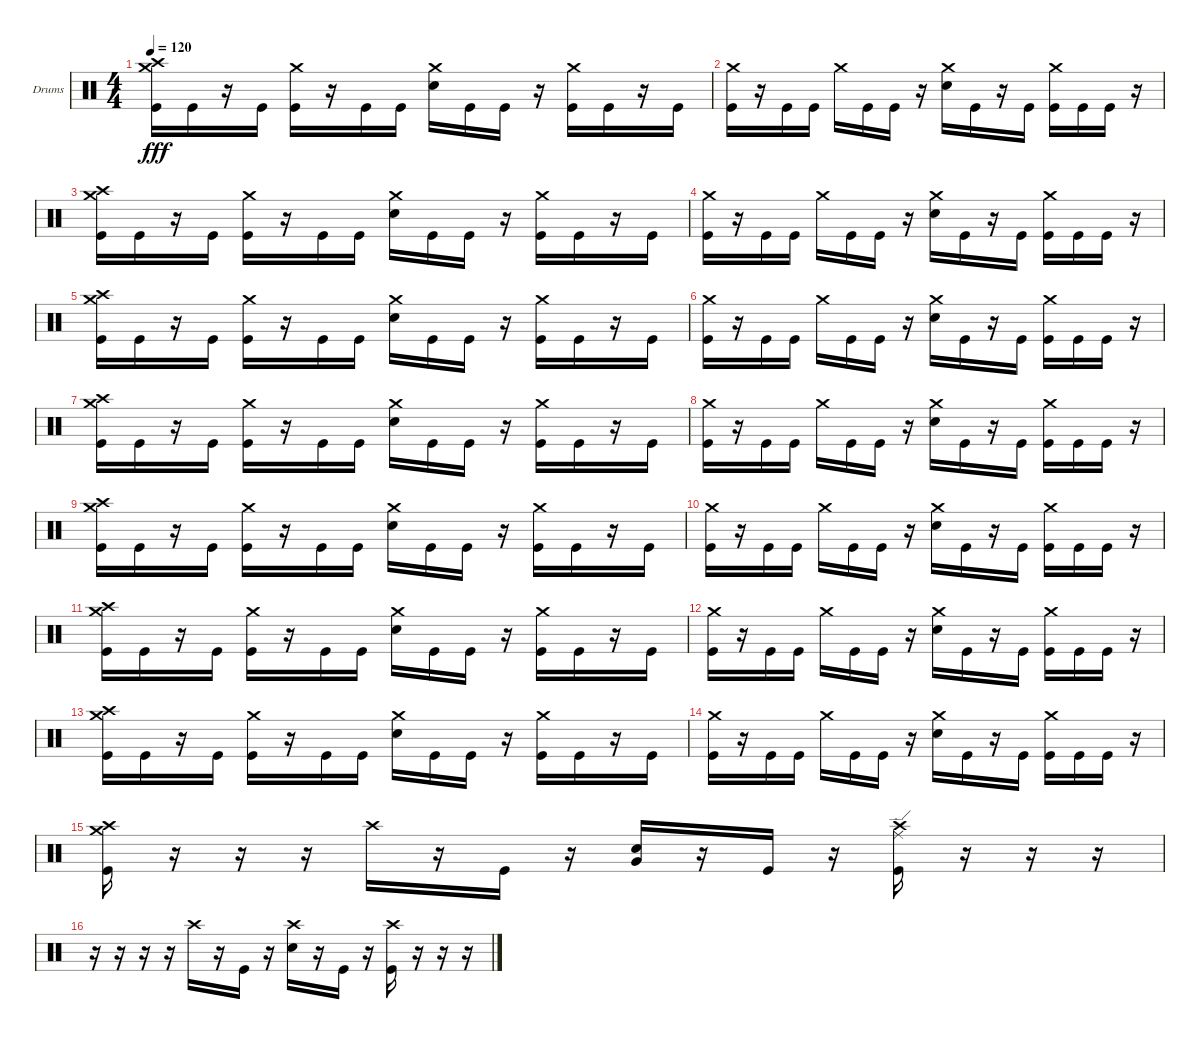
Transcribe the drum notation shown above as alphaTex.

\bracketExtendMode groupsimilarinstruments
\firstSystemTrackNameOrientation horizontal
\otherSystemsTrackNameOrientation horizontal
\track ("Drumkit" "Drums") {instrument percussion}
\staff {score}
\articulation defaults
\ts (4 4)
\tempo 120
\clef neutral
\ks c
("Kick (hit)" "Crash medium (hit)" "Crash high (hit)").16{dy fff} "Kick (hit)".16 r.16 "Kick (hit)".16 ("Kick (hit)" "Crash medium (hit)").16 r.16 "Kick (hit)".16 "Kick (hit)".16 ("Crash medium (hit)" "Snare (hit) 2").16 "Kick (hit)".16 "Kick (hit)".16 r.16 ("Kick (hit)" "Crash medium (hit)").16 "Kick (hit)".16 r.16 "Kick (hit)".16 |
("Kick (hit)" "Crash medium (hit)").16 r.16 "Kick (hit)".16 "Kick (hit)".16 "Crash medium (hit)".16 "Kick (hit)".16 "Kick (hit)".16 r.16 ("Crash medium (hit)" "Snare (hit) 2").16 "Kick (hit)".16 r.16 "Kick (hit)".16 ("Kick (hit)" "Crash medium (hit)").16 "Kick (hit)".16 "Kick (hit)".16 r.16 |
("Kick (hit)" "Crash medium (hit)" "Crash high (hit)").16 "Kick (hit)".16 r.16 "Kick (hit)".16 ("Kick (hit)" "Crash medium (hit)").16 r.16 "Kick (hit)".16 "Kick (hit)".16 ("Crash medium (hit)" "Snare (hit) 2").16 "Kick (hit)".16 "Kick (hit)".16 r.16 ("Kick (hit)" "Crash medium (hit)").16 "Kick (hit)".16 r.16 "Kick (hit)".16 |
("Kick (hit)" "Crash medium (hit)").16 r.16 "Kick (hit)".16 "Kick (hit)".16 "Crash medium (hit)".16 "Kick (hit)".16 "Kick (hit)".16 r.16 ("Crash medium (hit)" "Snare (hit) 2").16 "Kick (hit)".16 r.16 "Kick (hit)".16 ("Kick (hit)" "Crash medium (hit)").16 "Kick (hit)".16 "Kick (hit)".16 r.16 |
("Kick (hit)" "Crash medium (hit)" "Crash high (hit)").16 "Kick (hit)".16 r.16 "Kick (hit)".16 ("Kick (hit)" "Crash medium (hit)").16 r.16 "Kick (hit)".16 "Kick (hit)".16 ("Crash medium (hit)" "Snare (hit) 2").16 "Kick (hit)".16 "Kick (hit)".16 r.16 ("Kick (hit)" "Crash medium (hit)").16 "Kick (hit)".16 r.16 "Kick (hit)".16 |
("Kick (hit)" "Crash medium (hit)").16 r.16 "Kick (hit)".16 "Kick (hit)".16 "Crash medium (hit)".16 "Kick (hit)".16 "Kick (hit)".16 r.16 ("Crash medium (hit)" "Snare (hit) 2").16 "Kick (hit)".16 r.16 "Kick (hit)".16 ("Kick (hit)" "Crash medium (hit)").16 "Kick (hit)".16 "Kick (hit)".16 r.16 |
("Kick (hit)" "Crash medium (hit)" "Crash high (hit)").16 "Kick (hit)".16 r.16 "Kick (hit)".16 ("Kick (hit)" "Crash medium (hit)").16 r.16 "Kick (hit)".16 "Kick (hit)".16 ("Crash medium (hit)" "Snare (hit) 2").16 "Kick (hit)".16 "Kick (hit)".16 r.16 ("Kick (hit)" "Crash medium (hit)").16 "Kick (hit)".16 r.16 "Kick (hit)".16 |
("Kick (hit)" "Crash medium (hit)").16 r.16 "Kick (hit)".16 "Kick (hit)".16 "Crash medium (hit)".16 "Kick (hit)".16 "Kick (hit)".16 r.16 ("Crash medium (hit)" "Snare (hit) 2").16 "Kick (hit)".16 r.16 "Kick (hit)".16 ("Kick (hit)" "Crash medium (hit)").16 "Kick (hit)".16 "Kick (hit)".16 r.16 |
("Kick (hit)" "Crash medium (hit)" "Crash high (hit)").16 "Kick (hit)".16 r.16 "Kick (hit)".16 ("Kick (hit)" "Crash medium (hit)").16 r.16 "Kick (hit)".16 "Kick (hit)".16 ("Crash medium (hit)" "Snare (hit) 2").16 "Kick (hit)".16 "Kick (hit)".16 r.16 ("Kick (hit)" "Crash medium (hit)").16 "Kick (hit)".16 r.16 "Kick (hit)".16 |
("Kick (hit)" "Crash medium (hit)").16 r.16 "Kick (hit)".16 "Kick (hit)".16 "Crash medium (hit)".16 "Kick (hit)".16 "Kick (hit)".16 r.16 ("Crash medium (hit)" "Snare (hit) 2").16 "Kick (hit)".16 r.16 "Kick (hit)".16 ("Kick (hit)" "Crash medium (hit)").16 "Kick (hit)".16 "Kick (hit)".16 r.16 |
("Kick (hit)" "Crash medium (hit)" "Crash high (hit)").16 "Kick (hit)".16 r.16 "Kick (hit)".16 ("Kick (hit)" "Crash medium (hit)").16 r.16 "Kick (hit)".16 "Kick (hit)".16 ("Crash medium (hit)" "Snare (hit) 2").16 "Kick (hit)".16 "Kick (hit)".16 r.16 ("Kick (hit)" "Crash medium (hit)").16 "Kick (hit)".16 r.16 "Kick (hit)".16 |
("Kick (hit)" "Crash medium (hit)").16 r.16 "Kick (hit)".16 "Kick (hit)".16 "Crash medium (hit)".16 "Kick (hit)".16 "Kick (hit)".16 r.16 ("Crash medium (hit)" "Snare (hit) 2").16 "Kick (hit)".16 r.16 "Kick (hit)".16 ("Kick (hit)" "Crash medium (hit)").16 "Kick (hit)".16 "Kick (hit)".16 r.16 |
("Kick (hit)" "Crash medium (hit)" "Crash high (hit)").16 "Kick (hit)".16 r.16 "Kick (hit)".16 ("Kick (hit)" "Crash medium (hit)").16 r.16 "Kick (hit)".16 "Kick (hit)".16 ("Crash medium (hit)" "Snare (hit) 2").16 "Kick (hit)".16 "Kick (hit)".16 r.16 ("Kick (hit)" "Crash medium (hit)").16 "Kick (hit)".16 r.16 "Kick (hit)".16 |
("Kick (hit)" "Crash medium (hit)").16 r.16 "Kick (hit)".16 "Kick (hit)".16 "Crash medium (hit)".16 "Kick (hit)".16 "Kick (hit)".16 r.16 ("Crash medium (hit)" "Snare (hit) 2").16 "Kick (hit)".16 r.16 "Kick (hit)".16 ("Kick (hit)" "Crash medium (hit)").16 "Kick (hit)".16 "Kick (hit)".16 r.16 |
("Kick (hit)" "Crash medium (hit)" "Crash high (hit)").16 r.16 r.16 r.16 "Crash high (hit)".16 r.16 "Kick (hit)".16 r.16 ("Snare (hit) 2" "Very Low Tom (hit)").16 r.16 "Kick (hit)".16 r.16 ("Kick (hit)" "Crash high (hit)" "Ride (edge)").16 r.16 r.16 r.16 |
r.16 r.16 r.16 r.16 "Crash high (hit)".16 r.16 "Kick (hit)".16 r.16 ("Snare (hit) 2" "Crash high (hit)").16 r.16 "Kick (hit)".16 r.16 ("Kick (hit)" "Crash high (hit)").16 r.16 r.16 r.16
